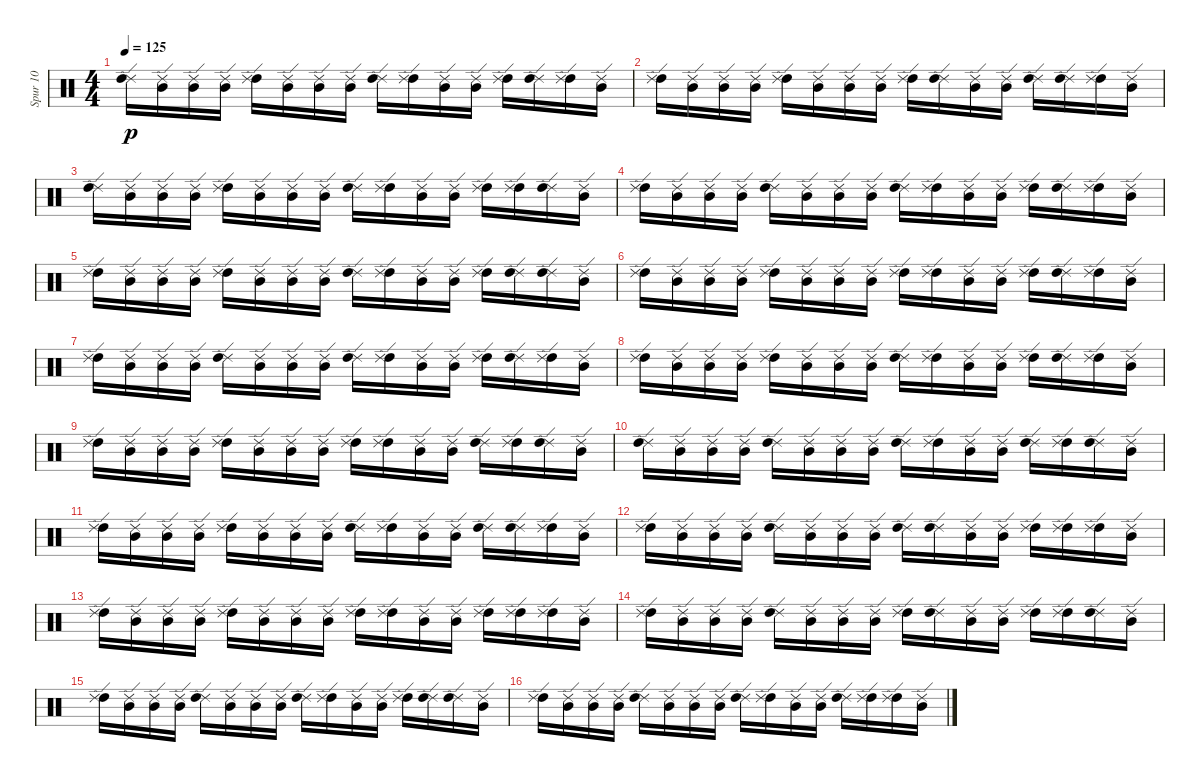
\track ("Spur 10" "Spur 10") {instrument percussion}
\staff {score}
\articulation defaults
\ts (4 4)
\tempo 125
\clef neutral
\ks c
("Ride (edge) 2" "High Tom (hit)").16{dy p} ("Mid Tom (hit)" "Ride (edge) 2").16 ("Ride (edge) 2" "Mid Tom (hit)").16 ("Ride (edge) 2" "Mid Tom (hit)").16 ("High Tom (hit)" "Ride (edge) 2").16 ("Ride (edge) 2" "Mid Tom (hit)").16 ("Ride (edge) 2" "Mid Tom (hit)").16 ("Ride (edge) 2" "Mid Tom (hit)").16 ("Ride (edge) 2" "High Tom (hit)").16 ("High Tom (hit)" "Ride (edge) 2").16 ("Mid Tom (hit)" "Ride (edge) 2").16 ("Ride (edge) 2" "Mid Tom (hit)").16 ("High Tom (hit)" "Ride (edge) 2").16 ("Ride (edge) 2" "High Tom (hit)").16 ("High Tom (hit)" "Ride (edge) 2").16 ("Ride (edge) 2" "Mid Tom (hit)").16 |
("High Tom (hit)" "Ride (edge) 2").16 ("Mid Tom (hit)" "Ride (edge) 2").16 ("Mid Tom (hit)" "Ride (edge) 2").16 ("Mid Tom (hit)" "Ride (edge) 2").16 ("High Tom (hit)" "Ride (edge) 2").16 ("Mid Tom (hit)" "Ride (edge) 2").16 ("Mid Tom (hit)" "Ride (edge) 2").16 ("Mid Tom (hit)" "Ride (edge) 2").16 ("High Tom (hit)" "Ride (edge) 2").16 ("Ride (edge) 2" "High Tom (hit)").16 ("Mid Tom (hit)" "Ride (edge) 2").16 ("Ride (edge) 2" "Mid Tom (hit)").16 ("Ride (edge) 2" "High Tom (hit)").16 ("Ride (edge) 2" "High Tom (hit)").16 ("High Tom (hit)" "Ride (edge) 2").16 ("Ride (edge) 2" "Mid Tom (hit)").16 |
("Ride (edge) 2" "High Tom (hit)").16 ("Mid Tom (hit)" "Ride (edge) 2").16 ("Ride (edge) 2" "Mid Tom (hit)").16 ("Mid Tom (hit)" "Ride (edge) 2").16 ("High Tom (hit)" "Ride (edge) 2").16 ("Mid Tom (hit)" "Ride (edge) 2").16 ("Mid Tom (hit)" "Ride (edge) 2").16 ("Ride (edge) 2" "Mid Tom (hit)").16 ("Ride (edge) 2" "High Tom (hit)").16 ("High Tom (hit)" "Ride (edge) 2").16 ("Mid Tom (hit)" "Ride (edge) 2").16 ("Ride (edge) 2" "Mid Tom (hit)").16 ("High Tom (hit)" "Ride (edge) 2").16 ("High Tom (hit)" "Ride (edge) 2").16 ("Ride (edge) 2" "High Tom (hit)").16 ("Ride (edge) 2" "Mid Tom (hit)").16 |
("High Tom (hit)" "Ride (edge) 2").16 ("Ride (edge) 2" "Mid Tom (hit)").16 ("Mid Tom (hit)" "Ride (edge) 2").16 ("Ride (edge) 2" "Mid Tom (hit)").16 ("Ride (edge) 2" "High Tom (hit)").16 ("Ride (edge) 2" "Mid Tom (hit)").16 ("Ride (edge) 2" "Mid Tom (hit)").16 ("Mid Tom (hit)" "Ride (edge) 2").16 ("Ride (edge) 2" "High Tom (hit)").16 ("High Tom (hit)" "Ride (edge) 2").16 ("Ride (edge) 2" "Mid Tom (hit)").16 ("Mid Tom (hit)" "Ride (edge) 2").16 ("High Tom (hit)" "Ride (edge) 2").16 ("Ride (edge) 2" "High Tom (hit)").16 ("High Tom (hit)" "Ride (edge) 2").16 ("Mid Tom (hit)" "Ride (edge) 2").16 |
("High Tom (hit)" "Ride (edge) 2").16 ("Mid Tom (hit)" "Ride (edge) 2").16 ("Mid Tom (hit)" "Ride (edge) 2").16 ("Ride (edge) 2" "Mid Tom (hit)").16 ("High Tom (hit)" "Ride (edge) 2").16 ("Ride (edge) 2" "Mid Tom (hit)").16 ("Mid Tom (hit)" "Ride (edge) 2").16 ("Mid Tom (hit)" "Ride (edge) 2").16 ("Ride (edge) 2" "High Tom (hit)").16 ("High Tom (hit)" "Ride (edge) 2").16 ("Mid Tom (hit)" "Ride (edge) 2").16 ("Ride (edge) 2" "Mid Tom (hit)").16 ("High Tom (hit)" "Ride (edge) 2").16 ("Ride (edge) 2" "High Tom (hit)").16 ("Ride (edge) 2" "High Tom (hit)").16 ("Ride (edge) 2" "Mid Tom (hit)").16 |
("High Tom (hit)" "Ride (edge) 2").16 ("Ride (edge) 2" "Mid Tom (hit)").16 ("Ride (edge) 2" "Mid Tom (hit)").16 ("Mid Tom (hit)" "Ride (edge) 2").16 ("High Tom (hit)" "Ride (edge) 2").16 ("Mid Tom (hit)" "Ride (edge) 2").16 ("Ride (edge) 2" "Mid Tom (hit)").16 ("Ride (edge) 2" "Mid Tom (hit)").16 ("High Tom (hit)" "Ride (edge) 2").16 ("High Tom (hit)" "Ride (edge) 2").16 ("Ride (edge) 2" "Mid Tom (hit)").16 ("Mid Tom (hit)" "Ride (edge) 2").16 ("High Tom (hit)" "Ride (edge) 2").16 ("Ride (edge) 2" "High Tom (hit)").16 ("High Tom (hit)" "Ride (edge) 2").16 ("Ride (edge) 2" "Mid Tom (hit)").16 |
("High Tom (hit)" "Ride (edge) 2").16 ("Mid Tom (hit)" "Ride (edge) 2").16 ("Mid Tom (hit)" "Ride (edge) 2").16 ("Mid Tom (hit)" "Ride (edge) 2").16 ("Ride (edge) 2" "High Tom (hit)").16 ("Ride (edge) 2" "Mid Tom (hit)").16 ("Ride (edge) 2" "Mid Tom (hit)").16 ("Ride (edge) 2" "Mid Tom (hit)").16 ("Ride (edge) 2" "High Tom (hit)").16 ("High Tom (hit)" "Ride (edge) 2").16 ("Ride (edge) 2" "Mid Tom (hit)").16 ("Mid Tom (hit)" "Ride (edge) 2").16 ("High Tom (hit)" "Ride (edge) 2").16 ("Ride (edge) 2" "High Tom (hit)").16 ("High Tom (hit)" "Ride (edge) 2").16 ("Mid Tom (hit)" "Ride (edge) 2").16 |
("High Tom (hit)" "Ride (edge) 2").16 ("Mid Tom (hit)" "Ride (edge) 2").16 ("Ride (edge) 2" "Mid Tom (hit)").16 ("Mid Tom (hit)" "Ride (edge) 2").16 ("High Tom (hit)" "Ride (edge) 2").16 ("Mid Tom (hit)" "Ride (edge) 2").16 ("Ride (edge) 2" "Mid Tom (hit)").16 ("Ride (edge) 2" "Mid Tom (hit)").16 ("Ride (edge) 2" "High Tom (hit)").16 ("High Tom (hit)" "Ride (edge) 2").16 ("Mid Tom (hit)" "Ride (edge) 2").16 ("Ride (edge) 2" "Mid Tom (hit)").16 ("High Tom (hit)" "Ride (edge) 2").16 ("Ride (edge) 2" "High Tom (hit)").16 ("High Tom (hit)" "Ride (edge) 2").16 ("Mid Tom (hit)" "Ride (edge) 2").16 |
("High Tom (hit)" "Ride (edge) 2").16 ("Mid Tom (hit)" "Ride (edge) 2").16 ("Ride (edge) 2" "Mid Tom (hit)").16 ("Ride (edge) 2" "Mid Tom (hit)").16 ("High Tom (hit)" "Ride (edge) 2").16 ("Ride (edge) 2" "Mid Tom (hit)").16 ("Mid Tom (hit)" "Ride (edge) 2").16 ("Mid Tom (hit)" "Ride (edge) 2").16 ("High Tom (hit)" "Ride (edge) 2").16 ("High Tom (hit)" "Ride (edge) 2").16 ("Ride (edge) 2" "Mid Tom (hit)").16 ("Mid Tom (hit)" "Ride (edge) 2").16 ("Ride (edge) 2" "High Tom (hit)").16 ("High Tom (hit)" "Ride (edge) 2").16 ("Ride (edge) 2" "High Tom (hit)").16 ("Ride (edge) 2" "Mid Tom (hit)").16 |
("Ride (edge) 2" "High Tom (hit)").16 ("Mid Tom (hit)" "Ride (edge) 2").16 ("Mid Tom (hit)" "Ride (edge) 2").16 ("Ride (edge) 2" "Mid Tom (hit)").16 ("Ride (edge) 2" "High Tom (hit)").16 ("Ride (edge) 2" "Mid Tom (hit)").16 ("Mid Tom (hit)" "Ride (edge) 2").16 ("Mid Tom (hit)" "Ride (edge) 2").16 ("Ride (edge) 2" "High Tom (hit)").16 ("High Tom (hit)" "Ride (edge) 2").16 ("Mid Tom (hit)" "Ride (edge) 2").16 ("Mid Tom (hit)" "Ride (edge) 2").16 ("Ride (edge) 2" "High Tom (hit)").16 ("High Tom (hit)" "Ride (edge) 2").16 ("Ride (edge) 2" "High Tom (hit)").16 ("Mid Tom (hit)" "Ride (edge) 2").16 |
("High Tom (hit)" "Ride (edge) 2").16 ("Ride (edge) 2" "Mid Tom (hit)").16 ("Mid Tom (hit)" "Ride (edge) 2").16 ("Ride (edge) 2" "Mid Tom (hit)").16 ("High Tom (hit)" "Ride (edge) 2").16 ("Mid Tom (hit)" "Ride (edge) 2").16 ("Ride (edge) 2" "Mid Tom (hit)").16 ("Ride (edge) 2" "Mid Tom (hit)").16 ("Ride (edge) 2" "High Tom (hit)").16 ("High Tom (hit)" "Ride (edge) 2").16 ("Ride (edge) 2" "Mid Tom (hit)").16 ("Mid Tom (hit)" "Ride (edge) 2").16 ("Ride (edge) 2" "High Tom (hit)").16 ("Ride (edge) 2" "High Tom (hit)").16 ("High Tom (hit)" "Ride (edge) 2").16 ("Mid Tom (hit)" "Ride (edge) 2").16 |
("High Tom (hit)" "Ride (edge) 2").16 ("Mid Tom (hit)" "Ride (edge) 2").16 ("Ride (edge) 2" "Mid Tom (hit)").16 ("Ride (edge) 2" "Mid Tom (hit)").16 ("Ride (edge) 2" "High Tom (hit)").16 ("Ride (edge) 2" "Mid Tom (hit)").16 ("Ride (edge) 2" "Mid Tom (hit)").16 ("Ride (edge) 2" "Mid Tom (hit)").16 ("Ride (edge) 2" "High Tom (hit)").16 ("Ride (edge) 2" "High Tom (hit)").16 ("Mid Tom (hit)" "Ride (edge) 2").16 ("Mid Tom (hit)" "Ride (edge) 2").16 ("High Tom (hit)" "Ride (edge) 2").16 ("High Tom (hit)" "Ride (edge) 2").16 ("High Tom (hit)" "Ride (edge) 2").16 ("Mid Tom (hit)" "Ride (edge) 2").16 |
("High Tom (hit)" "Ride (edge) 2").16 ("Ride (edge) 2" "Mid Tom (hit)").16 ("Mid Tom (hit)" "Ride (edge) 2").16 ("Mid Tom (hit)" "Ride (edge) 2").16 ("High Tom (hit)" "Ride (edge) 2").16 ("Mid Tom (hit)" "Ride (edge) 2").16 ("Ride (edge) 2" "Mid Tom (hit)").16 ("Mid Tom (hit)" "Ride (edge) 2").16 ("High Tom (hit)" "Ride (edge) 2").16 ("High Tom (hit)" "Ride (edge) 2").16 ("Ride (edge) 2" "Mid Tom (hit)").16 ("Mid Tom (hit)" "Ride (edge) 2").16 ("High Tom (hit)" "Ride (edge) 2").16 ("High Tom (hit)" "Ride (edge) 2").16 ("High Tom (hit)" "Ride (edge) 2").16 ("Mid Tom (hit)" "Ride (edge) 2").16 |
("High Tom (hit)" "Ride (edge) 2").16 ("Mid Tom (hit)" "Ride (edge) 2").16 ("Ride (edge) 2" "Mid Tom (hit)").16 ("Mid Tom (hit)" "Ride (edge) 2").16 ("Ride (edge) 2" "High Tom (hit)").16 ("Ride (edge) 2" "Mid Tom (hit)").16 ("Mid Tom (hit)" "Ride (edge) 2").16 ("Ride (edge) 2" "Mid Tom (hit)").16 ("High Tom (hit)" "Ride (edge) 2").16 ("Ride (edge) 2" "High Tom (hit)").16 ("Ride (edge) 2" "Mid Tom (hit)").16 ("Ride (edge) 2" "Mid Tom (hit)").16 ("High Tom (hit)" "Ride (edge) 2").16 ("High Tom (hit)" "Ride (edge) 2").16 ("Ride (edge) 2" "High Tom (hit)").16 ("Mid Tom (hit)" "Ride (edge) 2").16 |
("High Tom (hit)" "Ride (edge) 2").16 ("Ride (edge) 2" "Mid Tom (hit)").16 ("Mid Tom (hit)" "Ride (edge) 2").16 ("Ride (edge) 2" "Mid Tom (hit)").16 ("Ride (edge) 2" "High Tom (hit)").16 ("Mid Tom (hit)" "Ride (edge) 2").16 ("Mid Tom (hit)" "Ride (edge) 2").16 ("Ride (edge) 2" "Mid Tom (hit)").16 ("Ride (edge) 2" "High Tom (hit)").16 ("High Tom (hit)" "Ride (edge) 2").16 ("Ride (edge) 2" "Mid Tom (hit)").16 ("Mid Tom (hit)" "Ride (edge) 2").16 ("High Tom (hit)" "Ride (edge) 2").16 ("Ride (edge) 2" "High Tom (hit)").16 ("Ride (edge) 2" "High Tom (hit)").16 ("Mid Tom (hit)" "Ride (edge) 2").16 |
("High Tom (hit)" "Ride (edge) 2").16 ("Ride (edge) 2" "Mid Tom (hit)").16 ("Ride (edge) 2" "Mid Tom (hit)").16 ("Ride (edge) 2" "Mid Tom (hit)").16 ("Ride (edge) 2" "High Tom (hit)").16 ("Ride (edge) 2" "Mid Tom (hit)").16 ("Mid Tom (hit)" "Ride (edge) 2").16 ("Ride (edge) 2" "Mid Tom (hit)").16 ("Ride (edge) 2" "High Tom (hit)").16 ("High Tom (hit)" "Ride (edge) 2").16 ("Ride (edge) 2" "Mid Tom (hit)").16 ("Mid Tom (hit)" "Ride (edge) 2").16 ("Ride (edge) 2" "High Tom (hit)").16 ("High Tom (hit)" "Ride (edge) 2").16 ("High Tom (hit)" "Ride (edge) 2").16 ("Mid Tom (hit)" "Ride (edge) 2").16
